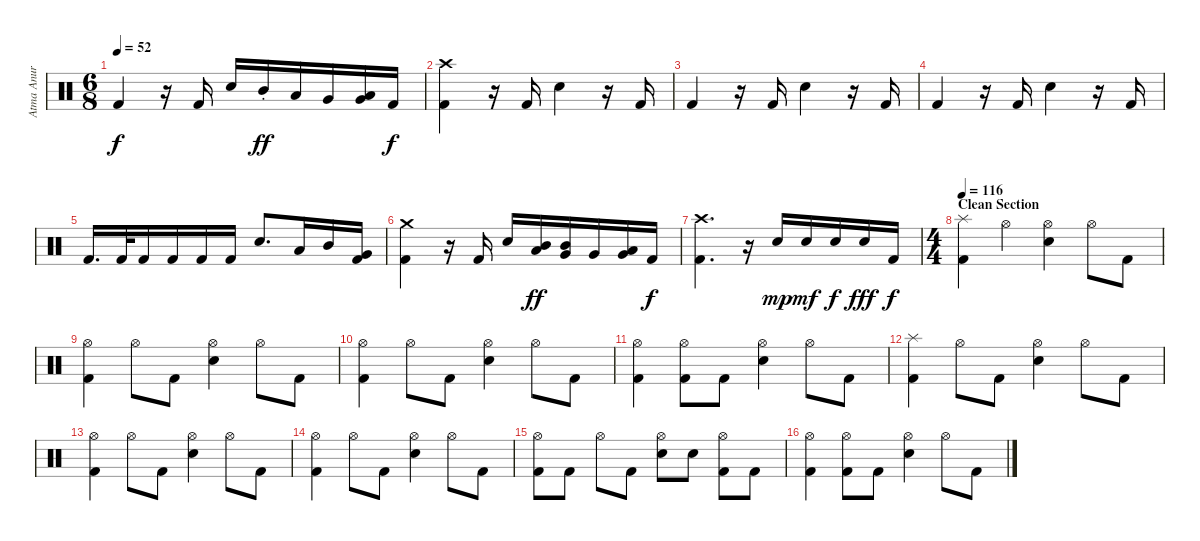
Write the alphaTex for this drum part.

\track ("Atma Anur " "Atma Anur ") {instrument percussion}
\staff {score}
\articulation defaults
\ts (6 8)
\tempo 52
\clef neutral
\ks c "Kick (hit) 2".4{dy f}
r.16 "Kick (hit) 2".16 "Snare (hit) 2".16 "Mid Tom (hit)"{st}.16{dy ff} "Low Tom (hit)".16 "Very Low Tom (hit)".16 ("Very Low Tom (hit)" "Low Floor Tom (hit)").16 "Kick (hit) 2".16{dy f} |
("Crash high (hit)" "Kick (hit) 2").4 r.16 "Kick (hit) 2".16 "Snare (hit) 2".4 r.16 "Kick (hit) 2".16 |
"Kick (hit) 2".4 r.16 "Kick (hit) 2".16 "Snare (hit) 2".4 r.16 "Kick (hit) 2".16 |
"Kick (hit) 2".4 r.16 "Kick (hit) 2".16 "Snare (hit) 2".4 r.16 "Kick (hit) 2".16 |
"Kick (hit) 2".16{d} "Kick (hit) 2".32 "Kick (hit) 2".16 "Kick (hit) 2".16 "Kick (hit) 2".16 "Kick (hit) 2".16 "Snare (hit) 2".8{d} "Low Tom (hit)".16 "Mid Tom (hit)".16 ("Very Low Tom (hit)" "Kick (hit) 2").16 |
("Crash medium (hit)" "Kick (hit) 2").4 r.16 "Kick (hit) 2".16 "Snare (hit) 2".16 ("Mid Tom (hit)" "Low Tom (hit)").16{dy ff} ("Mid Tom (hit)" "Very Low Tom (hit)").16 "Very Low Tom (hit)".16 ("Very Low Tom (hit)" "Low Floor Tom (hit)").16 "Kick (hit) 2".16{dy f} |
("Crash high (hit)" "Kick (hit) 2").4{d} r.16 "Snare (hit) 2".16{dy mp} "Snare (hit) 2".16{dy mf} "Snare (hit) 2".16{dy f} "Snare (hit) 2".16{dy fff} "Kick (hit) 2".16{dy f} |
\ts (4 4)
\section ("" "Clean Section ")
\tempo 116
("Splash (hit)" "Kick (hit) 2").4 "Hi-Hat (open)".4 ("Hi-Hat (open)" "Snare (hit) 2").4 "Hi-Hat (open)".8 "Kick (hit) 2".8 |
("Hi-Hat (open)" "Kick (hit) 2").4 "Hi-Hat (open)".8 "Kick (hit) 2".8 ("Hi-Hat (open)" "Snare (hit) 2").4 "Hi-Hat (open)".8 "Kick (hit) 2".8 |
("Hi-Hat (open)" "Kick (hit) 2").4 "Hi-Hat (open)".8 "Kick (hit) 2".8 ("Hi-Hat (open)" "Snare (hit) 2").4 "Hi-Hat (open)".8 "Kick (hit) 2".8 |
("Hi-Hat (open)" "Kick (hit) 2").4 ("Hi-Hat (open)" "Kick (hit) 2").8 "Kick (hit) 2".8 ("Hi-Hat (open)" "Snare (hit) 2").4 "Hi-Hat (open)".8 "Kick (hit) 2".8 |
("Splash (hit)" "Kick (hit) 2").4 "Hi-Hat (open)".8 "Kick (hit) 2".8 ("Hi-Hat (open)" "Snare (hit) 2").4 "Hi-Hat (open)".8 "Kick (hit) 2".8 |
("Hi-Hat (open)" "Kick (hit) 2").4 "Hi-Hat (open)".8 "Kick (hit) 2".8 ("Hi-Hat (open)" "Snare (hit) 2").4 "Hi-Hat (open)".8 "Kick (hit) 2".8 |
("Hi-Hat (open)" "Kick (hit) 2").4 "Hi-Hat (open)".8 "Kick (hit) 2".8 ("Hi-Hat (open)" "Snare (hit) 2").4 "Hi-Hat (open)".8 "Kick (hit) 2".8 |
("Hi-Hat (open)" "Kick (hit) 2").8 "Kick (hit) 2".8 "Hi-Hat (open)".8 "Kick (hit) 2".8 ("Hi-Hat (open)" "Snare (hit) 2").8 "Snare (hit) 2".8 ("Hi-Hat (open)" "Kick (hit) 2").8 "Kick (hit) 2".8 |
("Hi-Hat (open)" "Kick (hit) 2").4 ("Hi-Hat (open)" "Kick (hit) 2").8 "Kick (hit) 2".8 ("Hi-Hat (open)" "Snare (hit) 2").4 "Hi-Hat (open)".8 "Kick (hit) 2".8
